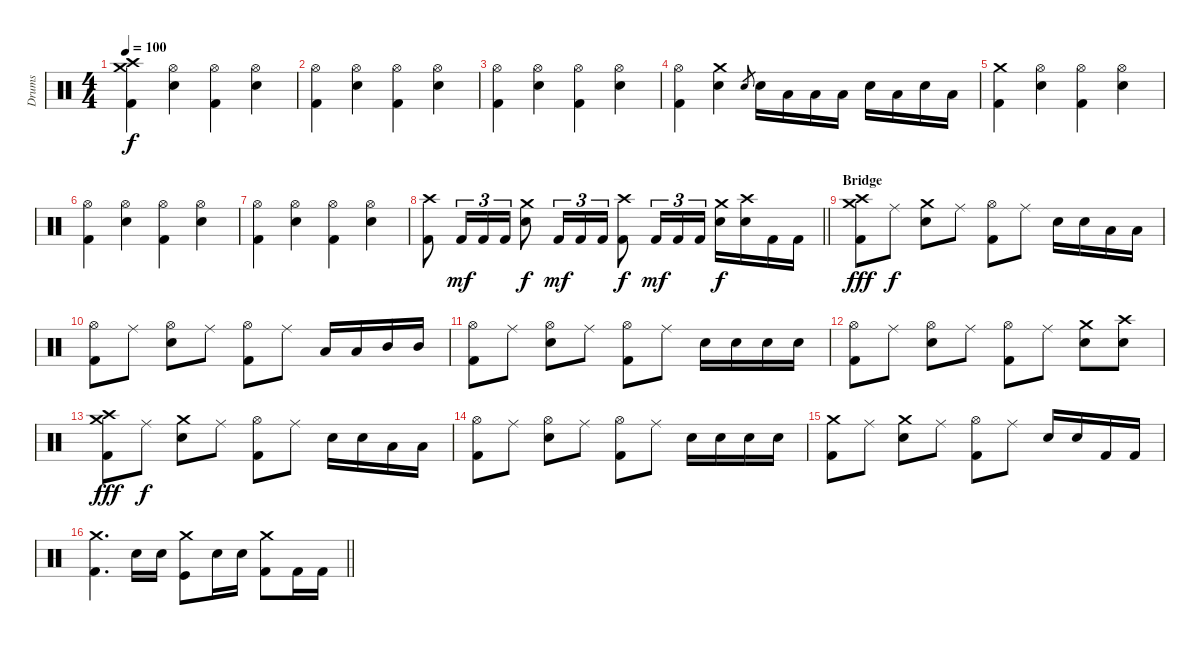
\track ("Drums" "Drums") {instrument percussion}
\staff {score}
\articulation defaults
\ts (4 4)
\tempo 100
\clef neutral
\ks c
("Crash high (hit)" "Crash medium (hit)" "Kick (hit) 2").4{dy f} ("Hi-Hat (open)" "Snare (hit) 2").4 ("Hi-Hat (open)" "Kick (hit) 2").4 ("Hi-Hat (open)" "Snare (hit) 2").4 |
("Hi-Hat (open)" "Kick (hit) 2").4 ("Hi-Hat (open)" "Snare (hit) 2").4 ("Hi-Hat (open)" "Kick (hit) 2").4 ("Hi-Hat (open)" "Snare (hit) 2").4 |
("Hi-Hat (open)" "Kick (hit) 2").4 ("Hi-Hat (open)" "Snare (hit) 2").4 ("Hi-Hat (open)" "Kick (hit) 2").4 ("Hi-Hat (open)" "Snare (hit) 2").4 |
("Hi-Hat (open)" "Kick (hit) 2").4 ("Crash medium (hit)" "Snare (hit) 2").4 "Electric Snare (hit)".8{gr} "Electric Snare (hit)".16 "Low Floor Tom (hit)".16 "Low Floor Tom (hit)".16 "Low Floor Tom (hit)".16 "Electric Snare (hit)".16 "Low Floor Tom (hit)".16 "Electric Snare (hit)".16 "Low Floor Tom (hit)".16 |
("Crash medium (hit)" "Kick (hit) 2").4 ("Hi-Hat (open)" "Snare (hit) 2").4 ("Hi-Hat (open)" "Kick (hit) 2").4 ("Hi-Hat (open)" "Snare (hit) 2").4 |
("Hi-Hat (open)" "Kick (hit) 2").4 ("Hi-Hat (open)" "Snare (hit) 2").4 ("Hi-Hat (open)" "Kick (hit) 2").4 ("Hi-Hat (open)" "Snare (hit) 2").4 |
("Hi-Hat (open)" "Kick (hit) 2").4 ("Hi-Hat (open)" "Snare (hit) 2").4 ("Hi-Hat (open)" "Kick (hit) 2").4 ("Hi-Hat (open)" "Snare (hit) 2").4 |
\barLineRight lightlight
("Crash high (hit)" "Kick (hit) 2").8 "Kick (hit) 2".16{tu (3 2) dy mf} "Kick (hit) 2".16{tu (3 2)} "Kick (hit) 2".16{tu (3 2)} ("Crash medium (hit)" "Snare (hit) 2").8{dy f} "Kick (hit) 2".16{tu (3 2) dy mf} "Kick (hit) 2".16{tu (3 2)} "Kick (hit) 2".16{tu (3 2)} ("Crash high (hit)" "Kick (hit) 2").8{dy f} "Kick (hit) 2".16{tu (3 2) dy mf} "Kick (hit) 2".16{tu (3 2)} "Kick (hit) 2".16{tu (3 2)} ("Crash medium (hit)" "Snare (hit) 2").16{dy f} ("Crash high (hit)" "Snare (hit) 2").16 "Kick (hit) 2".16 "Kick (hit) 2".16 |
\section ("" "Bridge")
("Crash high (hit)" "Crash medium (hit)" "Kick (hit) 2").8{dy fff} "Ride (middle)".8{dy f} ("Crash medium (hit)" "Snare (hit) 2").8 "Ride (middle)".8 ("Hi-Hat (open)" "Kick (hit) 2").8 "Ride (middle)".8 "Electric Snare (hit)".16 "Electric Snare (hit)".16 "Low Floor Tom (hit)".16 "Low Floor Tom (hit)".16 |
("Hi-Hat (open)" "Kick (hit) 2").8 "Ride (middle)".8 ("Hi-Hat (open)" "Snare (hit) 2").8 "Ride (middle)".8 ("Hi-Hat (open)" "Kick (hit) 2").8 "Ride (middle)".8 "Low Tom (hit)".16 "Low Tom (hit)".16 "Mid Tom (hit)".16 "Mid Tom (hit)".16 |
("Hi-Hat (open)" "Kick (hit) 2").8 "Ride (middle)".8 ("Hi-Hat (open)" "Snare (hit) 2").8 "Ride (middle)".8 ("Hi-Hat (open)" "Kick (hit) 2").8 "Ride (middle)".8 "Electric Snare (hit)".16 "Electric Snare (hit)".16 "Electric Snare (hit)".16 "Electric Snare (hit)".16 |
("Hi-Hat (open)" "Kick (hit) 2").8 "Ride (middle)".8 ("Hi-Hat (open)" "Snare (hit) 2").8 "Ride (middle)".8 ("Hi-Hat (open)" "Kick (hit) 2").8 "Ride (middle)".8 ("Crash medium (hit)" "Snare (hit) 2").8 ("Crash high (hit)" "Snare (hit) 2").8 |
("Crash high (hit)" "Crash medium (hit)" "Kick (hit) 2").8{dy fff} "Ride (middle)".8{dy f} ("Crash medium (hit)" "Snare (hit) 2").8 "Ride (middle)".8 ("Hi-Hat (open)" "Kick (hit) 2").8 "Ride (middle)".8 "Electric Snare (hit)".16 "Electric Snare (hit)".16 "Low Floor Tom (hit)".16 "Low Floor Tom (hit)".16 |
("Hi-Hat (open)" "Kick (hit) 2").8 "Ride (middle)".8 ("Hi-Hat (open)" "Snare (hit) 2").8 "Ride (middle)".8 ("Hi-Hat (open)" "Kick (hit) 2").8 "Ride (middle)".8 "Snare (hit) 2".16 "Snare (hit) 2".16 "Snare (hit) 2".16 "Snare (hit) 2".16 |
("Crash medium (hit)" "Kick (hit) 2").8 "Ride (middle)".8 ("Crash medium (hit)" "Snare (hit) 2").8 "Ride (middle)".8 ("Hi-Hat (open)" "Kick (hit) 2").8 "Ride (middle)".8 "Snare (hit) 2".16 "Snare (hit) 2".16 "Kick (hit) 2".16 "Kick (hit) 2".16 |
\barLineRight lightlight
("Crash medium (hit)" "Kick (hit) 2").4{d} "Snare (hit) 2".16 "Snare (hit) 2".16 ("Crash medium (hit)" "Kick (hit)").8 "Snare (hit) 2".16 "Snare (hit) 2".16 ("Crash medium (hit)" "Kick (hit) 2").8 "Kick (hit) 2".16 "Kick (hit) 2".16
